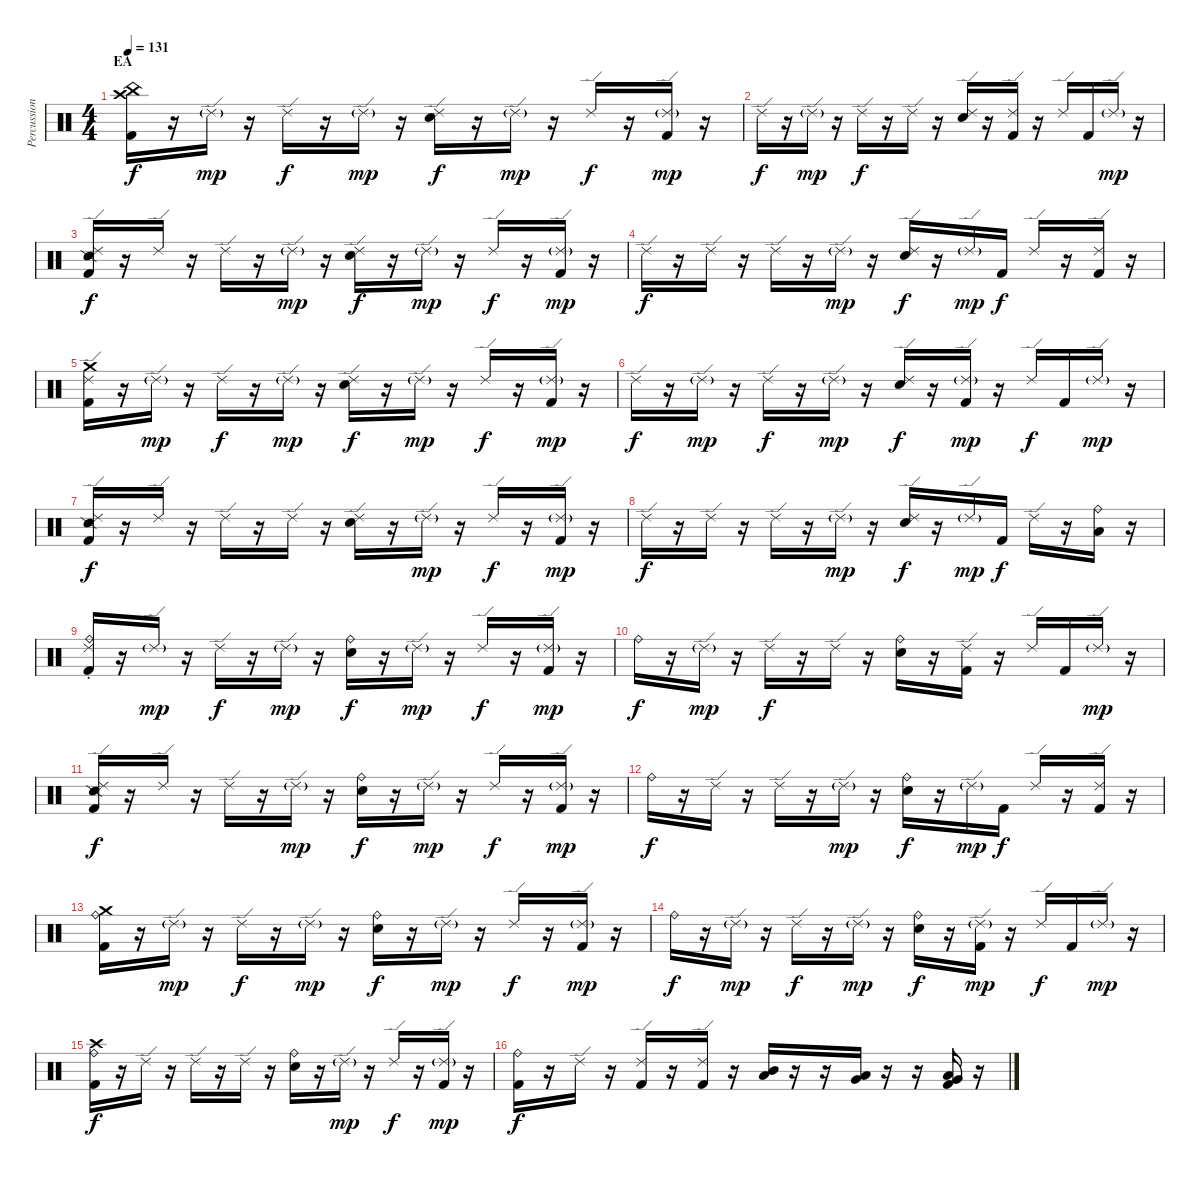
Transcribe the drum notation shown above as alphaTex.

\track ("Percussion" "Percussion") {instrument percussion}
\staff {score}
\articulation defaults
\ts (4 4)
\section ("" "EA")
\tempo 131
\clef neutral
\ks c
("Crash high (hit)" "China (hit)" "Kick (hit) 2").16{dy f} r.16 "Ride (edge) 2"{g}.16{dy mp} r.16 "Ride (edge) 2".16{dy f} r.16 "Ride (edge) 2"{g}.16{dy mp} r.16 ("Ride (edge) 2" "Snare (hit) 2").16{dy f} r.16 "Ride (edge) 2"{g}.16{dy mp} r.16 "Ride (edge) 2".16{dy f} r.16 ("Ride (edge) 2"{g} "Kick (hit) 2").16{dy mp} r.16 |
"Ride (edge) 2".16{dy f} r.16 "Ride (edge) 2"{g}.16{dy mp} r.16 "Ride (edge) 2".16{dy f} r.16 "Ride (edge) 2".16 r.16 ("Ride (edge) 2" "Snare (hit) 2").16 r.16 ("Ride (edge) 2" "Kick (hit) 2").16 r.16 "Ride (edge) 2".16 "Kick (hit) 2".16 "Ride (edge) 2"{g}.16{dy mp} r.16 |
("Ride (edge) 2" "Snare (side stick) 2" "Kick (hit) 2").16{dy f} r.16 "Ride (edge) 2".16 r.16 "Ride (edge) 2".16 r.16 "Ride (edge) 2"{g}.16{dy mp} r.16 ("Ride (edge) 2" "Snare (hit) 2").16{dy f} r.16 "Ride (edge) 2"{g}.16{dy mp} r.16 "Ride (edge) 2".16{dy f} r.16 ("Ride (edge) 2"{g} "Kick (hit) 2").16{dy mp} r.16 |
"Ride (edge) 2".16{dy f} r.16 "Ride (edge) 2".16 r.16 "Ride (edge) 2".16 r.16 "Ride (edge) 2"{g}.16{dy mp} r.16 ("Ride (edge) 2" "Snare (hit) 2").16{dy f} r.16 "Ride (edge) 2"{g}.16{dy mp} "Kick (hit) 2".16{dy f} "Ride (edge) 2".16 r.16 ("Ride (edge) 2" "Kick (hit) 2").16 r.16 |
("Ride (edge) 2" "Crash medium (hit)" "Kick (hit) 2").16 r.16 "Ride (edge) 2"{g}.16{dy mp} r.16 "Ride (edge) 2".16{dy f} r.16 "Ride (edge) 2"{g}.16{dy mp} r.16 ("Ride (edge) 2" "Snare (hit) 2").16{dy f} r.16 "Ride (edge) 2"{g}.16{dy mp} r.16 "Ride (edge) 2".16{dy f} r.16 ("Ride (edge) 2"{g} "Kick (hit) 2").16{dy mp} r.16 |
"Ride (edge) 2".16{dy f} r.16 "Ride (edge) 2"{g}.16{dy mp} r.16 "Ride (edge) 2".16{dy f} r.16 "Ride (edge) 2"{g}.16{dy mp} r.16 ("Ride (edge) 2" "Snare (hit) 2").16{dy f} r.16 ("Ride (edge) 2"{g} "Kick (hit) 2").16{dy mp} r.16 "Ride (edge) 2".16{dy f} "Kick (hit) 2".16 "Ride (edge) 2"{g}.16{dy mp} r.16 |
("Ride (edge) 2" "Snare (side stick) 2" "Kick (hit) 2").16{dy f} r.16 "Ride (edge) 2".16 r.16 "Ride (edge) 2".16 r.16 "Ride (edge) 2".16 r.16 ("Ride (edge) 2" "Snare (hit) 2").16 r.16 "Ride (edge) 2"{g}.16{dy mp} r.16 "Ride (edge) 2".16{dy f} r.16 ("Ride (edge) 2"{g} "Kick (hit) 2").16{dy mp} r.16 |
"Ride (edge) 2".16{dy f} r.16 "Ride (edge) 2".16 r.16 "Ride (edge) 2".16 r.16 "Ride (edge) 2"{g}.16{dy mp} r.16 ("Ride (edge) 2" "Snare (hit) 2").16{dy f} r.16 "Ride (edge) 2"{g}.16{dy mp} "Kick (hit) 2".16{dy f} "Ride (edge) 2".16 r.16 ("Ride (bell)" "Low Tom (hit)").16 r.16 |
("Ride (bell)" "Ride (choke) 2" "Kick (hit) 2").16 r.16 "Ride (edge) 2"{g}.16{dy mp} r.16 "Ride (edge) 2".16{dy f} r.16 "Ride (edge) 2"{g}.16{dy mp} r.16 ("Ride (bell)" "Snare (hit) 2").16{dy f} r.16 "Ride (edge) 2"{g}.16{dy mp} r.16 "Ride (edge) 2".16{dy f} r.16 ("Ride (edge) 2"{g} "Kick (hit) 2").16{dy mp} r.16 |
"Ride (bell)".16{dy f} r.16 "Ride (edge) 2"{g}.16{dy mp} r.16 "Ride (edge) 2".16{dy f} r.16 "Ride (edge) 2".16 r.16 ("Ride (bell)" "Snare (hit) 2").16 r.16 ("Ride (edge) 2" "Kick (hit) 2").16 r.16 "Ride (edge) 2".16 "Kick (hit) 2".16 "Ride (edge) 2"{g}.16{dy mp} r.16 |
("Ride (edge) 2" "Snare (side stick) 2" "Kick (hit) 2").16{dy f} r.16 "Ride (edge) 2".16 r.16 "Ride (edge) 2".16 r.16 "Ride (edge) 2"{g}.16{dy mp} r.16 ("Ride (bell)" "Snare (hit) 2").16{dy f} r.16 "Ride (edge) 2"{g}.16{dy mp} r.16 "Ride (edge) 2".16{dy f} r.16 ("Ride (edge) 2"{g} "Kick (hit) 2").16{dy mp} r.16 |
"Ride (bell)".16{dy f} r.16 "Ride (edge) 2".16 r.16 "Ride (edge) 2".16 r.16 "Ride (edge) 2"{g}.16{dy mp} r.16 ("Ride (bell)" "Snare (hit) 2").16{dy f} r.16 "Ride (edge) 2"{g}.16{dy mp} "Kick (hit) 2".16{dy f} "Ride (edge) 2".16 r.16 ("Ride (edge) 2" "Kick (hit) 2").16 r.16 |
("Ride (bell)" "Crash medium (hit)" "Kick (hit) 2").16 r.16 "Ride (edge) 2"{g}.16{dy mp} r.16 "Ride (edge) 2".16{dy f} r.16 "Ride (edge) 2"{g}.16{dy mp} r.16 ("Ride (bell)" "Snare (hit) 2").16{dy f} r.16 "Ride (edge) 2"{g}.16{dy mp} r.16 "Ride (edge) 2".16{dy f} r.16 ("Ride (edge) 2"{g} "Kick (hit) 2").16{dy mp} r.16 |
"Ride (bell)".16{dy f} r.16 "Ride (edge) 2"{g}.16{dy mp} r.16 "Ride (edge) 2".16{dy f} r.16 "Ride (edge) 2"{g}.16{dy mp} r.16 ("Ride (bell)" "Snare (hit) 2").16{dy f} r.16 ("Ride (edge) 2"{g} "Kick (hit) 2").16{dy mp} r.16 "Ride (edge) 2".16{dy f} "Kick (hit) 2".16 "Ride (edge) 2"{g}.16{dy mp} r.16 |
("Ride (bell)" "Crash high (hit)" "Kick (hit) 2").16{dy f} r.16 "Ride (edge) 2".16 r.16 "Ride (edge) 2".16 r.16 "Ride (edge) 2".16 r.16 ("Ride (bell)" "Snare (hit) 2").16 r.16 "Ride (edge) 2"{g}.16{dy mp} r.16 "Ride (edge) 2".16{dy f} r.16 ("Ride (edge) 2"{g} "Kick (hit) 2").16{dy mp} r.16 |
("Ride (bell)" "Kick (hit) 2").16{dy f} r.16 "Ride (edge) 2".16 r.16 ("Ride (edge) 2" "Kick (hit) 2").16 r.16 ("Ride (edge) 2" "Kick (hit) 2").16 r.16 ("Mid Tom (hit)" "Low Tom (hit)").16{bu 60} r.16 r.16 ("Low Tom (hit)" "Very Low Tom (hit)").16{bu 60} r.16 r.16 ("Very Low Tom (hit)" "Low Floor Tom (hit)" "Kick (hit) 2").16{bu 60} r.16
